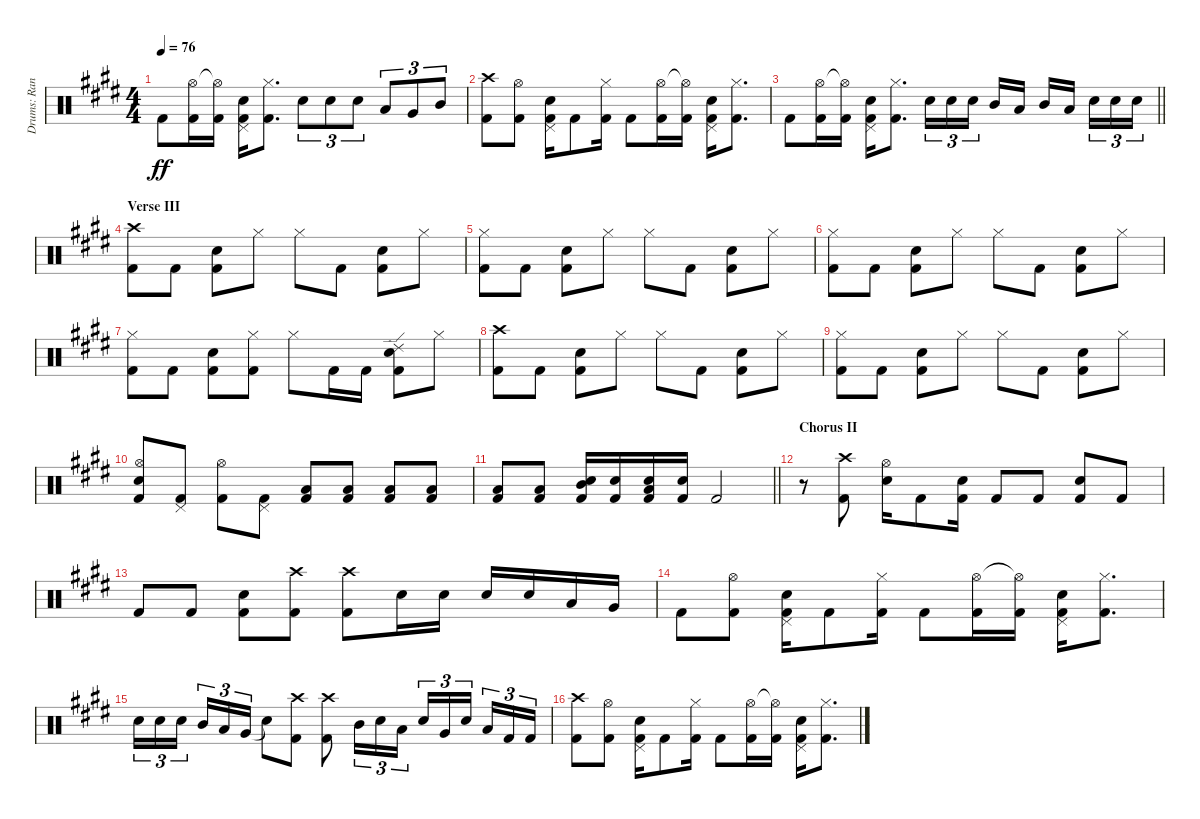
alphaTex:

\track ("Drums: Randy" "Drums: Ran") {instrument percussion}
\staff {score}
\articulation defaults
\ts (4 4)
\tempo 76
\clef neutral
\ks e "Kick (hit) 2".8{dy ff}
("Hi-Hat (open)" "Kick (hit) 2").16 ("Hi-Hat (open)"{t} "Kick (hit) 2").16 ("Pedal Hi-Hat (hit)" "Snare (hit) 2" "Kick (hit) 2").16 ("Hi-Hat (closed)" "Kick (hit) 2").8{d} "Snare (hit) 2".8{tu (3 2)} "Snare (hit) 2".8{tu (3 2)} "Snare (hit) 2".8{tu (3 2)} "Low Tom (hit)".8{tu (3 2)} "Very Low Tom (hit)".8{tu (3 2)} "Mid Tom (hit)".8{tu (3 2)} |
("Crash high (hit)" "Kick (hit) 2").8 ("Hi-Hat (open)" "Kick (hit) 2").8 ("Pedal Hi-Hat (hit)" "Snare (hit) 2" "Kick (hit) 2").16 "Kick (hit) 2".8 ("Hi-Hat (closed)" "Kick (hit) 2").16 "Kick (hit) 2".8 ("Hi-Hat (open)" "Kick (hit) 2").16 ("Hi-Hat (open)"{t} "Kick (hit) 2").16 ("Pedal Hi-Hat (hit)" "Snare (hit) 2" "Kick (hit) 2").16 ("Hi-Hat (closed)" "Kick (hit) 2").8{d} |
\barLineRight lightlight "Kick (hit) 2".8
("Hi-Hat (open)" "Kick (hit) 2").16 ("Hi-Hat (open)"{t} "Kick (hit) 2").16 ("Pedal Hi-Hat (hit)" "Snare (hit) 2" "Kick (hit) 2").16 ("Hi-Hat (closed)" "Kick (hit) 2").8{d} "Snare (hit) 2".16{tu (3 2)} "Snare (hit) 2".16{tu (3 2)} "Snare (hit) 2".16{tu (3 2) beam splitsecondary} "Mid Tom (hit)".16 "Low Tom (hit)".16 "Mid Tom (hit)".16 "Low Tom (hit)".16{beam splitsecondary} "Snare (hit) 2".16{tu (3 2)} "Snare (hit) 2".16{tu (3 2)} "Snare (hit) 2".16{tu (3 2)} |
\section ("" "Verse III")
("Crash high (hit)" "Kick (hit) 2").8 "Kick (hit) 2".8 ("Snare (hit) 2" "Kick (hit) 2").8 "Hi-Hat (closed)".8 "Hi-Hat (closed)".8 "Kick (hit) 2".8 ("Snare (hit) 2" "Kick (hit) 2").8 "Hi-Hat (closed)".8 |
("Hi-Hat (closed)" "Kick (hit) 2").8 "Kick (hit) 2".8 ("Snare (hit) 2" "Kick (hit) 2").8 "Hi-Hat (closed)".8 "Hi-Hat (closed)".8 "Kick (hit) 2".8 ("Snare (hit) 2" "Kick (hit) 2").8 "Hi-Hat (closed)".8 |
("Hi-Hat (closed)" "Kick (hit) 2").8 "Kick (hit) 2".8 ("Snare (hit) 2" "Kick (hit) 2").8 "Hi-Hat (closed)".8 "Hi-Hat (closed)".8 "Kick (hit) 2".8 ("Snare (hit) 2" "Kick (hit) 2").8 "Hi-Hat (closed)".8 |
("Hi-Hat (closed)" "Kick (hit) 2").8 "Kick (hit) 2".8 ("Snare (hit) 2" "Kick (hit) 2").8 ("Hi-Hat (closed)" "Kick (hit) 2").8 "Hi-Hat (closed)".8 "Kick (hit) 2".16 "Kick (hit) 2".16 ("Ride (edge) 2" "Snare (hit) 2" "Kick (hit) 2").8 "Hi-Hat (closed)".8 |
("Crash high (hit)" "Kick (hit) 2").8 "Kick (hit) 2".8 ("Snare (hit) 2" "Kick (hit) 2").8 "Hi-Hat (closed)".8 "Hi-Hat (closed)".8 "Kick (hit) 2".8 ("Snare (hit) 2" "Kick (hit) 2").8 "Hi-Hat (closed)".8 |
("Hi-Hat (closed)" "Kick (hit) 2").8 "Kick (hit) 2".8 ("Snare (hit) 2" "Kick (hit) 2").8 "Hi-Hat (closed)".8 "Hi-Hat (closed)".8 "Kick (hit) 2".8 ("Snare (hit) 2" "Kick (hit) 2").8 "Hi-Hat (closed)".8 |
("Hi-Hat (open)" "Snare (hit) 2" "Kick (hit) 2").8 ("Pedal Hi-Hat (hit)" "Kick (hit) 2").8 ("Hi-Hat (open)" "Kick (hit) 2").8 ("Pedal Hi-Hat (hit)" "Kick (hit) 2").8 ("Low Tom (hit)" "Kick (hit) 2").8 ("Low Tom (hit)" "Kick (hit) 2").8 ("Low Tom (hit)" "Kick (hit) 2").8 ("Low Tom (hit)" "Kick (hit) 2").8 |
\barLineRight lightlight
("Low Tom (hit)" "Kick (hit) 2").8 ("Low Tom (hit)" "Kick (hit) 2").8 ("Snare (hit) 2" "Mid Tom (hit)" "Kick (hit) 2").16 ("Snare (hit) 2" "Kick (hit) 2").16 ("Snare (hit) 2" "Low Tom (hit)" "Kick (hit) 2").16 ("Snare (hit) 2" "Kick (hit) 2").16 "Kick (hit) 2".2 |
\section ("" "Chorus II")
r.8 ("Crash high (hit)" "Kick (hit) 2").8 ("Hi-Hat (open)" "Snare (hit) 2").16 "Kick (hit) 2".8 ("Snare (hit) 2" "Kick (hit) 2").16 "Kick (hit) 2".8 "Kick (hit) 2".8 ("Snare (hit) 2" "Kick (hit) 2").8 "Kick (hit) 2".8 |
"Kick (hit) 2".8 "Kick (hit) 2".8 ("Snare (hit) 2" "Kick (hit) 2").8 ("Crash high (hit)" "Kick (hit) 2").8 ("Crash high (hit)" "Kick (hit) 2").8 "Snare (hit) 2".16 "Snare (hit) 2".16 "Snare (hit) 2".16 "Snare (hit) 2".16 "Low Tom (hit)".16 "Very Low Tom (hit)".16 |
"Kick (hit) 2".8 ("Hi-Hat (open)" "Kick (hit) 2").8 ("Pedal Hi-Hat (hit)" "Snare (hit) 2" "Kick (hit) 2").16 "Kick (hit) 2".8 ("Hi-Hat (closed)" "Kick (hit) 2").16 "Kick (hit) 2".8 ("Hi-Hat (open)" "Kick (hit) 2").16 ("Hi-Hat (open)"{t} "Kick (hit) 2").16 ("Pedal Hi-Hat (hit)" "Snare (hit) 2" "Kick (hit) 2").16 ("Hi-Hat (closed)" "Kick (hit) 2").8{d} |
"Snare (hit) 2".16{tu (3 2)} "Snare (hit) 2".16{tu (3 2)} "Snare (hit) 2".16{tu (3 2) beam splitsecondary} "Mid Tom (hit)".16{tu (3 2)} "Low Tom (hit)".16{tu (3 2)} "Very Low Tom (hit)".16{tu (3 2)} "Snare (hit)"{t}.8 ("Crash high (hit)" "Kick (hit) 2").8 ("Crash high (hit)" "Kick (hit) 2").8 "Mid Tom (hit)".16{tu (3 2)} "Snare (hit) 2".16{tu (3 2)} "Low Tom (hit)".16{tu (3 2)} "Snare (hit) 2".16{tu (3 2)} "Very Low Tom (hit)".16{tu (3 2)} "Snare (hit) 2".16{tu (3 2) beam splitsecondary} "Low Floor Tom (hit)".16{tu (3 2)} "Kick (hit) 2".16{tu (3 2)} "Kick (hit) 2".16{tu (3 2)} |
("Crash high (hit)" "Kick (hit) 2").8 ("Hi-Hat (open)" "Kick (hit) 2").8 ("Pedal Hi-Hat (hit)" "Snare (hit) 2" "Kick (hit) 2").16 "Kick (hit) 2".8 ("Hi-Hat (closed)" "Kick (hit) 2").16 "Kick (hit) 2".8 ("Hi-Hat (open)" "Kick (hit) 2").16 ("Hi-Hat (open)"{t} "Kick (hit) 2").16 ("Pedal Hi-Hat (hit)" "Snare (hit) 2" "Kick (hit) 2").16 ("Hi-Hat (closed)" "Kick (hit) 2").8{d}
